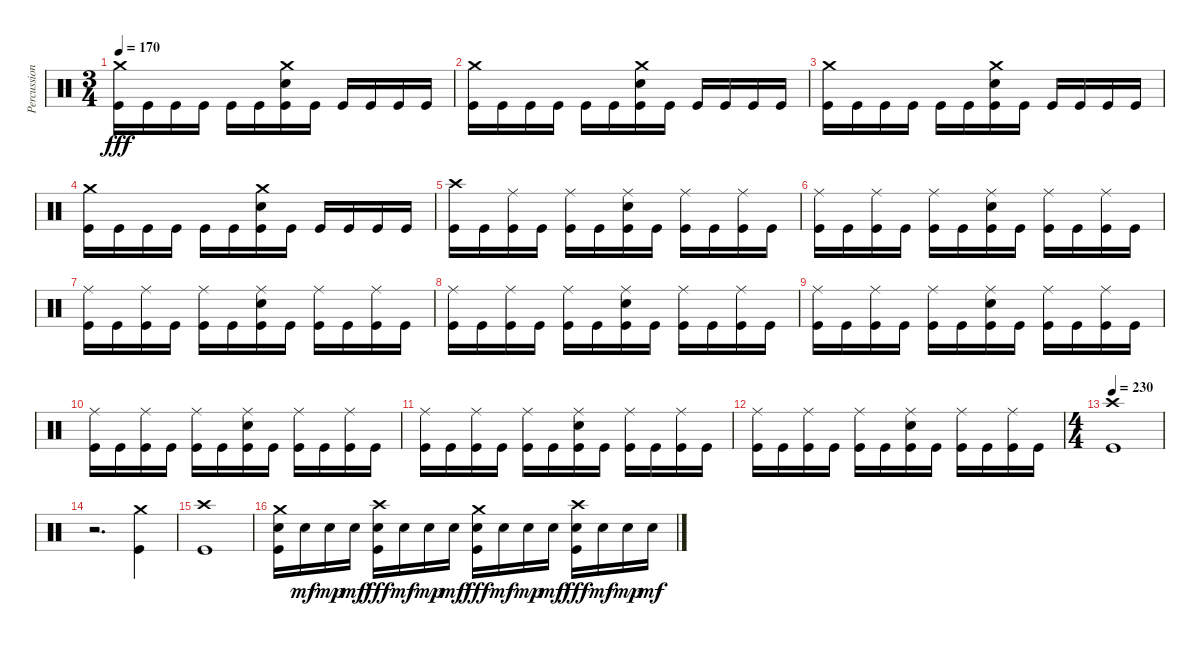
\track ("Percussion" "Percussion") {instrument percussion}
\staff {score}
\articulation defaults
\ts (3 4)
\tempo 170
\clef neutral
\ks c
("Crash medium (hit)" "Kick (hit)").16{dy fff} "Kick (hit)".16 "Kick (hit)".16 "Kick (hit)".16 "Kick (hit)".16 "Kick (hit)".16 ("Crash medium (hit)" "Electric Snare (hit)" "Kick (hit)").16 "Kick (hit)".16 "Kick (hit)".16 "Kick (hit)".16 "Kick (hit)".16 "Kick (hit)".16 |
("Crash medium (hit)" "Kick (hit)").16 "Kick (hit)".16 "Kick (hit)".16 "Kick (hit)".16 "Kick (hit)".16 "Kick (hit)".16 ("Crash medium (hit)" "Electric Snare (hit)" "Kick (hit)").16 "Kick (hit)".16 "Kick (hit)".16 "Kick (hit)".16 "Kick (hit)".16 "Kick (hit)".16 |
("Crash medium (hit)" "Kick (hit)").16 "Kick (hit)".16 "Kick (hit)".16 "Kick (hit)".16 "Kick (hit)".16 "Kick (hit)".16 ("Crash medium (hit)" "Electric Snare (hit)" "Kick (hit)").16 "Kick (hit)".16 "Kick (hit)".16 "Kick (hit)".16 "Kick (hit)".16 "Kick (hit)".16 |
("Crash medium (hit)" "Kick (hit)").16 "Kick (hit)".16 "Kick (hit)".16 "Kick (hit)".16 "Kick (hit)".16 "Kick (hit)".16 ("Crash medium (hit)" "Electric Snare (hit)" "Kick (hit)").16 "Kick (hit)".16 "Kick (hit)".16 "Kick (hit)".16 "Kick (hit)".16 "Kick (hit)".16 |
("Crash high (hit)" "Kick (hit)").16 "Kick (hit)".16 ("Ride (middle)" "Kick (hit)").16 "Kick (hit)".16 ("Ride (middle)" "Kick (hit)").16 "Kick (hit)".16 ("Ride (middle)" "Electric Snare (hit)" "Kick (hit)").16 "Kick (hit)".16 ("Ride (middle)" "Kick (hit)").16 "Kick (hit)".16 ("Ride (middle)" "Kick (hit)").16 "Kick (hit)".16 |
("Ride (middle)" "Kick (hit)").16 "Kick (hit)".16 ("Ride (middle)" "Kick (hit)").16 "Kick (hit)".16 ("Ride (middle)" "Kick (hit)").16 "Kick (hit)".16 ("Ride (middle)" "Electric Snare (hit)" "Kick (hit)").16 "Kick (hit)".16 ("Ride (middle)" "Kick (hit)").16 "Kick (hit)".16 ("Ride (middle)" "Kick (hit)").16 "Kick (hit)".16 |
("Ride (middle)" "Kick (hit)").16 "Kick (hit)".16 ("Ride (middle)" "Kick (hit)").16 "Kick (hit)".16 ("Ride (middle)" "Kick (hit)").16 "Kick (hit)".16 ("Ride (middle)" "Electric Snare (hit)" "Kick (hit)").16 "Kick (hit)".16 ("Ride (middle)" "Kick (hit)").16 "Kick (hit)".16 ("Ride (middle)" "Kick (hit)").16 "Kick (hit)".16 |
("Ride (middle)" "Kick (hit)").16 "Kick (hit)".16 ("Ride (middle)" "Kick (hit)").16 "Kick (hit)".16 ("Ride (middle)" "Kick (hit)").16 "Kick (hit)".16 ("Ride (middle)" "Electric Snare (hit)" "Kick (hit)").16 "Kick (hit)".16 ("Ride (middle)" "Kick (hit)").16 "Kick (hit)".16 ("Ride (middle)" "Kick (hit)").16 "Kick (hit)".16 |
("Ride (middle)" "Kick (hit)").16 "Kick (hit)".16 ("Ride (middle)" "Kick (hit)").16 "Kick (hit)".16 ("Ride (middle)" "Kick (hit)").16 "Kick (hit)".16 ("Ride (middle)" "Electric Snare (hit)" "Kick (hit)").16 "Kick (hit)".16 ("Ride (middle)" "Kick (hit)").16 "Kick (hit)".16 ("Ride (middle)" "Kick (hit)").16 "Kick (hit)".16 |
("Ride (middle)" "Kick (hit)").16 "Kick (hit)".16 ("Ride (middle)" "Kick (hit)").16 "Kick (hit)".16 ("Ride (middle)" "Kick (hit)").16 "Kick (hit)".16 ("Ride (middle)" "Electric Snare (hit)" "Kick (hit)").16 "Kick (hit)".16 ("Ride (middle)" "Kick (hit)").16 "Kick (hit)".16 ("Ride (middle)" "Kick (hit)").16 "Kick (hit)".16 |
("Ride (middle)" "Kick (hit)").16 "Kick (hit)".16 ("Ride (middle)" "Kick (hit)").16 "Kick (hit)".16 ("Ride (middle)" "Kick (hit)").16 "Kick (hit)".16 ("Ride (middle)" "Electric Snare (hit)" "Kick (hit)").16 "Kick (hit)".16 ("Ride (middle)" "Kick (hit)").16 "Kick (hit)".16 ("Ride (middle)" "Kick (hit)").16 "Kick (hit)".16 |
("Ride (middle)" "Kick (hit)").16 "Kick (hit)".16 ("Ride (middle)" "Kick (hit)").16 "Kick (hit)".16 ("Ride (middle)" "Kick (hit)").16 "Kick (hit)".16 ("Ride (middle)" "Electric Snare (hit)" "Kick (hit)").16 "Kick (hit)".16 ("Ride (middle)" "Kick (hit)").16 "Kick (hit)".16 ("Ride (middle)" "Kick (hit)").16 "Kick (hit)".16 |
\ts (4 4)
\tempo 230
("Crash high (hit)" "Kick (hit)").1 |
r.2{d} ("Crash medium (hit)" "Kick (hit)").4 |
("Crash high (hit)" "Kick (hit)").1 |
("Crash medium (hit)" "Electric Snare (hit)" "Kick (hit)").16 "Electric Snare (hit)".16{dy mf} "Electric Snare (hit)".16{dy mp} "Electric Snare (hit)".16{dy mf} ("Crash high (hit)" "Electric Snare (hit)" "Kick (hit)").16{dy fff} "Electric Snare (hit)".16{dy mf} "Electric Snare (hit)".16{dy mp} "Electric Snare (hit)".16{dy mf} ("Crash medium (hit)" "Electric Snare (hit)" "Kick (hit)").16{dy fff} "Electric Snare (hit)".16{dy mf} "Electric Snare (hit)".16{dy mp} "Electric Snare (hit)".16{dy mf} ("Crash high (hit)" "Electric Snare (hit)" "Kick (hit)").16{dy fff} "Electric Snare (hit)".16{dy mf} "Electric Snare (hit)".16{dy mp} "Electric Snare (hit)".16{dy mf}
